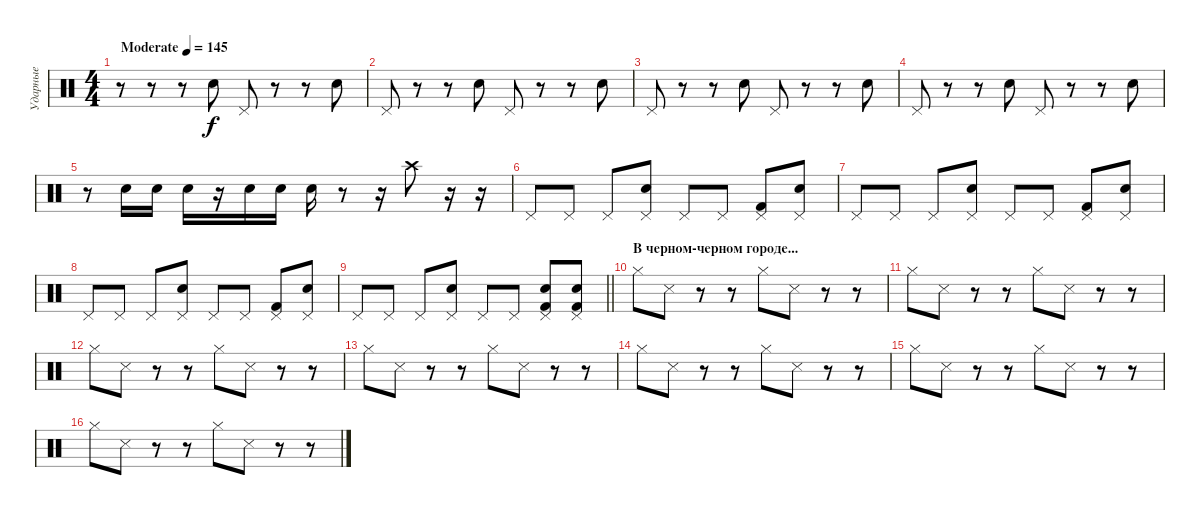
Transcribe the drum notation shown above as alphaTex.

\track ("Ударные" "Ударные") {instrument percussion}
\staff {score}
\articulation defaults
\ts (4 4)
\tempo (145 "Moderate")
\clef neutral
\ks c
r.8{dy f} r.8 r.8 "Electric Snare (hit)".8 "Pedal Hi-Hat (hit)".8 r.8 r.8 "Electric Snare (hit)".8 |
"Pedal Hi-Hat (hit)".8 r.8 r.8 "Electric Snare (hit)".8 "Pedal Hi-Hat (hit)".8 r.8 r.8 "Electric Snare (hit)".8 |
"Pedal Hi-Hat (hit)".8 r.8 r.8 "Electric Snare (hit)".8 "Pedal Hi-Hat (hit)".8 r.8 r.8 "Electric Snare (hit)".8 |
"Pedal Hi-Hat (hit)".8 r.8 r.8 "Electric Snare (hit)".8 "Pedal Hi-Hat (hit)".8 r.8 r.8 "Electric Snare (hit)".8 |
r.8 "Electric Snare (hit)".16 "Electric Snare (hit)".16 "Electric Snare (hit)".16 r.16 "Electric Snare (hit)".16 "Electric Snare (hit)".16 "Electric Snare (hit)".16 r.8 r.16 "Crash high (hit)".8 r.16 r.16 |
"Pedal Hi-Hat (hit)".8 "Pedal Hi-Hat (hit)".8 "Pedal Hi-Hat (hit)".8 ("Pedal Hi-Hat (hit)" "Electric Snare (hit)").8 "Pedal Hi-Hat (hit)".8 "Pedal Hi-Hat (hit)".8 ("Pedal Hi-Hat (hit)" "Kick (hit) 2").8 ("Pedal Hi-Hat (hit)" "Electric Snare (hit)").8 |
"Pedal Hi-Hat (hit)".8 "Pedal Hi-Hat (hit)".8 "Pedal Hi-Hat (hit)".8 ("Pedal Hi-Hat (hit)" "Electric Snare (hit)").8 "Pedal Hi-Hat (hit)".8 "Pedal Hi-Hat (hit)".8 ("Pedal Hi-Hat (hit)" "Kick (hit) 2").8 ("Pedal Hi-Hat (hit)" "Electric Snare (hit)").8 |
"Pedal Hi-Hat (hit)".8 "Pedal Hi-Hat (hit)".8 "Pedal Hi-Hat (hit)".8 ("Pedal Hi-Hat (hit)" "Electric Snare (hit)").8 "Pedal Hi-Hat (hit)".8 "Pedal Hi-Hat (hit)".8 ("Pedal Hi-Hat (hit)" "Kick (hit) 2").8 ("Pedal Hi-Hat (hit)" "Electric Snare (hit)").8 |
\barLineRight lightlight "Pedal Hi-Hat (hit)".8 "Pedal Hi-Hat (hit)".8 "Pedal Hi-Hat (hit)".8
("Pedal Hi-Hat (hit)" "Electric Snare (hit)").8 "Pedal Hi-Hat (hit)".8 "Pedal Hi-Hat (hit)".8 ("Kick (hit) 2" "Pedal Hi-Hat (hit)" "Electric Snare (hit)").8 ("Kick (hit) 2" "Pedal Hi-Hat (hit)" "Electric Snare (hit)").8 |
\section ("" "В черном-черном городе...")
"Hi-Hat (closed)".8 "Snare (side stick) 3".8 r.8 r.8 "Hi-Hat (closed)".8 "Snare (side stick) 3".8 r.8 r.8 |
"Hi-Hat (closed)".8 "Snare (side stick) 3".8 r.8 r.8 "Hi-Hat (closed)".8 "Snare (side stick) 3".8 r.8 r.8 |
"Hi-Hat (closed)".8 "Snare (side stick) 3".8 r.8 r.8 "Hi-Hat (closed)".8 "Snare (side stick) 3".8 r.8 r.8 |
"Hi-Hat (closed)".8 "Snare (side stick) 3".8 r.8 r.8 "Hi-Hat (closed)".8 "Snare (side stick) 3".8 r.8 r.8 |
"Hi-Hat (closed)".8 "Snare (side stick) 3".8 r.8 r.8 "Hi-Hat (closed)".8 "Snare (side stick) 3".8 r.8 r.8 |
"Hi-Hat (closed)".8 "Snare (side stick) 3".8 r.8 r.8 "Hi-Hat (closed)".8 "Snare (side stick) 3".8 r.8 r.8 |
"Hi-Hat (closed)".8 "Snare (side stick) 3".8 r.8 r.8 "Hi-Hat (closed)".8 "Snare (side stick) 3".8 r.8 r.8
